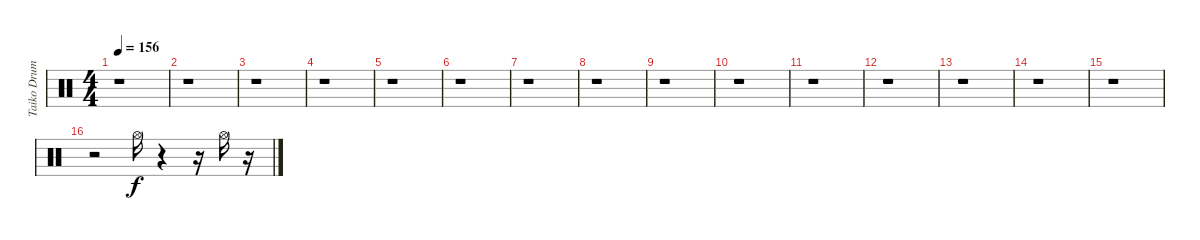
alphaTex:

\track ("Taiko Drum" "Taiko Drum") {instrument percussion}
\staff {score}
\articulation defaults
\ts (4 4)
\tempo 156
\clef neutral
\ks c
r.1{dy f} |
r.1 |
r.1 |
r.1 |
r.1 |
r.1 |
r.1 |
r.1 |
r.1 |
r.1 |
r.1 |
r.1 |
r.1 |
r.1 |
r.1 |
r.2 "Hi-Hat (open)".16 r.4 r.16 "Hi-Hat (open)".16 r.16
